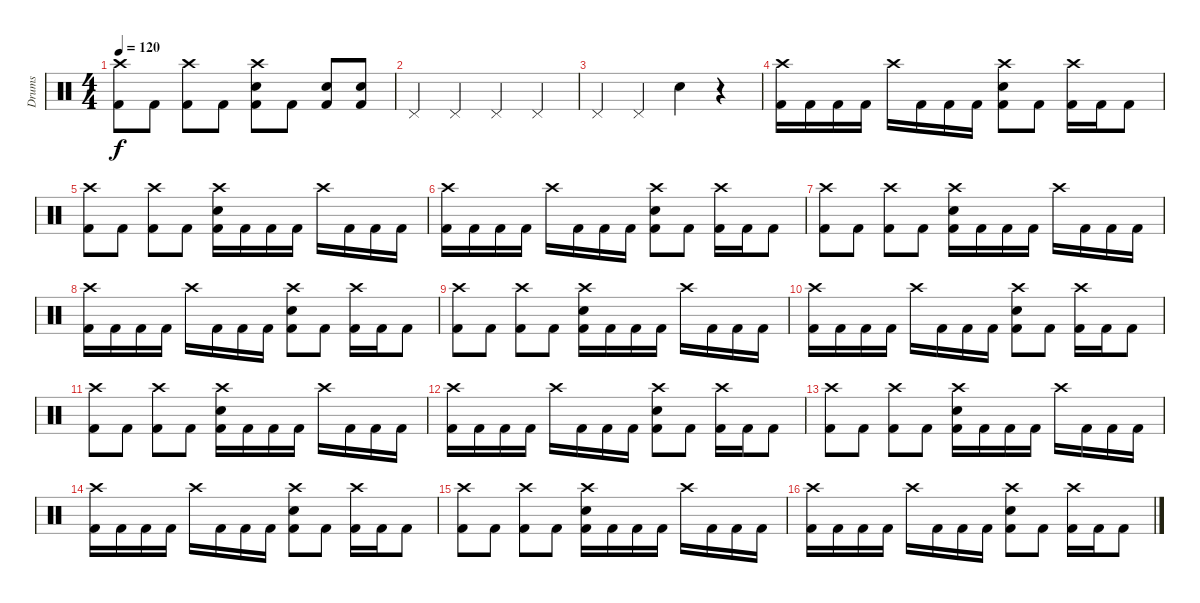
\track ("Drums" "Drums") {instrument percussion}
\staff {score}
\articulation defaults
\ts (4 4)
\tempo 120
\clef neutral
\ks c
("Crash high (hit)" "Kick (hit) 2").8{dy f} "Kick (hit) 2".8 ("Crash high (hit)" "Kick (hit) 2").8 "Kick (hit) 2".8 ("Crash high (hit)" "Electric Snare (hit)" "Kick (hit) 2").8 "Kick (hit) 2".8 ("Electric Snare (hit)" "Kick (hit) 2").8 ("Electric Snare (hit)" "Kick (hit) 2").8 |
"Pedal Hi-Hat (hit)".4 "Pedal Hi-Hat (hit)".4 "Pedal Hi-Hat (hit)".4 "Pedal Hi-Hat (hit)".4 |
"Pedal Hi-Hat (hit)".4 "Pedal Hi-Hat (hit)".4 "Electric Snare (hit)".4 r.4 |
("Crash high (hit)" "Kick (hit) 2").16{volume 16} "Kick (hit) 2".16 "Kick (hit) 2".16 "Kick (hit) 2".16 "Crash high (hit)".16 "Kick (hit) 2".16 "Kick (hit) 2".16 "Kick (hit) 2".16 ("Crash high (hit)" "Electric Snare (hit)" "Kick (hit) 2").8 "Kick (hit) 2".8 ("Crash high (hit)" "Kick (hit) 2").16 "Kick (hit) 2".16 "Kick (hit) 2".8 |
("Crash high (hit)" "Kick (hit) 2").8 "Kick (hit) 2".8 ("Crash high (hit)" "Kick (hit) 2").8 "Kick (hit) 2".8 ("Crash high (hit)" "Electric Snare (hit)" "Kick (hit) 2").16 "Kick (hit) 2".16 "Kick (hit) 2".16 "Kick (hit) 2".16 "Crash high (hit)".16 "Kick (hit) 2".16 "Kick (hit) 2".16 "Kick (hit) 2".16 |
("Crash high (hit)" "Kick (hit) 2").16 "Kick (hit) 2".16 "Kick (hit) 2".16 "Kick (hit) 2".16 "Crash high (hit)".16 "Kick (hit) 2".16 "Kick (hit) 2".16 "Kick (hit) 2".16 ("Crash high (hit)" "Electric Snare (hit)" "Kick (hit) 2").8 "Kick (hit) 2".8 ("Crash high (hit)" "Kick (hit) 2").16 "Kick (hit) 2".16 "Kick (hit) 2".8 |
("Crash high (hit)" "Kick (hit) 2").8 "Kick (hit) 2".8 ("Crash high (hit)" "Kick (hit) 2").8 "Kick (hit) 2".8 ("Crash high (hit)" "Electric Snare (hit)" "Kick (hit) 2").16 "Kick (hit) 2".16 "Kick (hit) 2".16 "Kick (hit) 2".16 "Crash high (hit)".16 "Kick (hit) 2".16 "Kick (hit) 2".16 "Kick (hit) 2".16 |
("Crash high (hit)" "Kick (hit) 2").16 "Kick (hit) 2".16 "Kick (hit) 2".16 "Kick (hit) 2".16 "Crash high (hit)".16 "Kick (hit) 2".16 "Kick (hit) 2".16 "Kick (hit) 2".16 ("Crash high (hit)" "Electric Snare (hit)" "Kick (hit) 2").8 "Kick (hit) 2".8 ("Crash high (hit)" "Kick (hit) 2").16 "Kick (hit) 2".16 "Kick (hit) 2".8 |
("Crash high (hit)" "Kick (hit) 2").8 "Kick (hit) 2".8 ("Crash high (hit)" "Kick (hit) 2").8 "Kick (hit) 2".8 ("Crash high (hit)" "Electric Snare (hit)" "Kick (hit) 2").16 "Kick (hit) 2".16 "Kick (hit) 2".16 "Kick (hit) 2".16 "Crash high (hit)".16 "Kick (hit) 2".16 "Kick (hit) 2".16 "Kick (hit) 2".16 |
("Crash high (hit)" "Kick (hit) 2").16 "Kick (hit) 2".16 "Kick (hit) 2".16 "Kick (hit) 2".16 "Crash high (hit)".16 "Kick (hit) 2".16 "Kick (hit) 2".16 "Kick (hit) 2".16 ("Crash high (hit)" "Electric Snare (hit)" "Kick (hit) 2").8 "Kick (hit) 2".8 ("Crash high (hit)" "Kick (hit) 2").16 "Kick (hit) 2".16 "Kick (hit) 2".8 |
("Crash high (hit)" "Kick (hit) 2").8 "Kick (hit) 2".8 ("Crash high (hit)" "Kick (hit) 2").8 "Kick (hit) 2".8 ("Crash high (hit)" "Electric Snare (hit)" "Kick (hit) 2").16 "Kick (hit) 2".16 "Kick (hit) 2".16 "Kick (hit) 2".16 "Crash high (hit)".16 "Kick (hit) 2".16 "Kick (hit) 2".16 "Kick (hit) 2".16 |
("Crash high (hit)" "Kick (hit) 2").16 "Kick (hit) 2".16 "Kick (hit) 2".16 "Kick (hit) 2".16 "Crash high (hit)".16 "Kick (hit) 2".16 "Kick (hit) 2".16 "Kick (hit) 2".16 ("Crash high (hit)" "Electric Snare (hit)" "Kick (hit) 2").8 "Kick (hit) 2".8 ("Crash high (hit)" "Kick (hit) 2").16 "Kick (hit) 2".16 "Kick (hit) 2".8 |
("Crash high (hit)" "Kick (hit) 2").8 "Kick (hit) 2".8 ("Crash high (hit)" "Kick (hit) 2").8 "Kick (hit) 2".8 ("Crash high (hit)" "Electric Snare (hit)" "Kick (hit) 2").16 "Kick (hit) 2".16 "Kick (hit) 2".16 "Kick (hit) 2".16 "Crash high (hit)".16 "Kick (hit) 2".16 "Kick (hit) 2".16 "Kick (hit) 2".16 |
("Crash high (hit)" "Kick (hit) 2").16 "Kick (hit) 2".16 "Kick (hit) 2".16 "Kick (hit) 2".16 "Crash high (hit)".16 "Kick (hit) 2".16 "Kick (hit) 2".16 "Kick (hit) 2".16 ("Crash high (hit)" "Electric Snare (hit)" "Kick (hit) 2").8 "Kick (hit) 2".8 ("Crash high (hit)" "Kick (hit) 2").16 "Kick (hit) 2".16 "Kick (hit) 2".8 |
("Crash high (hit)" "Kick (hit) 2").8 "Kick (hit) 2".8 ("Crash high (hit)" "Kick (hit) 2").8 "Kick (hit) 2".8 ("Crash high (hit)" "Electric Snare (hit)" "Kick (hit) 2").16 "Kick (hit) 2".16 "Kick (hit) 2".16 "Kick (hit) 2".16 "Crash high (hit)".16 "Kick (hit) 2".16 "Kick (hit) 2".16 "Kick (hit) 2".16 |
("Crash high (hit)" "Kick (hit) 2").16 "Kick (hit) 2".16 "Kick (hit) 2".16 "Kick (hit) 2".16 "Crash high (hit)".16 "Kick (hit) 2".16 "Kick (hit) 2".16 "Kick (hit) 2".16 ("Crash high (hit)" "Electric Snare (hit)" "Kick (hit) 2").8 "Kick (hit) 2".8 ("Crash high (hit)" "Kick (hit) 2").16 "Kick (hit) 2".16 "Kick (hit) 2".8
